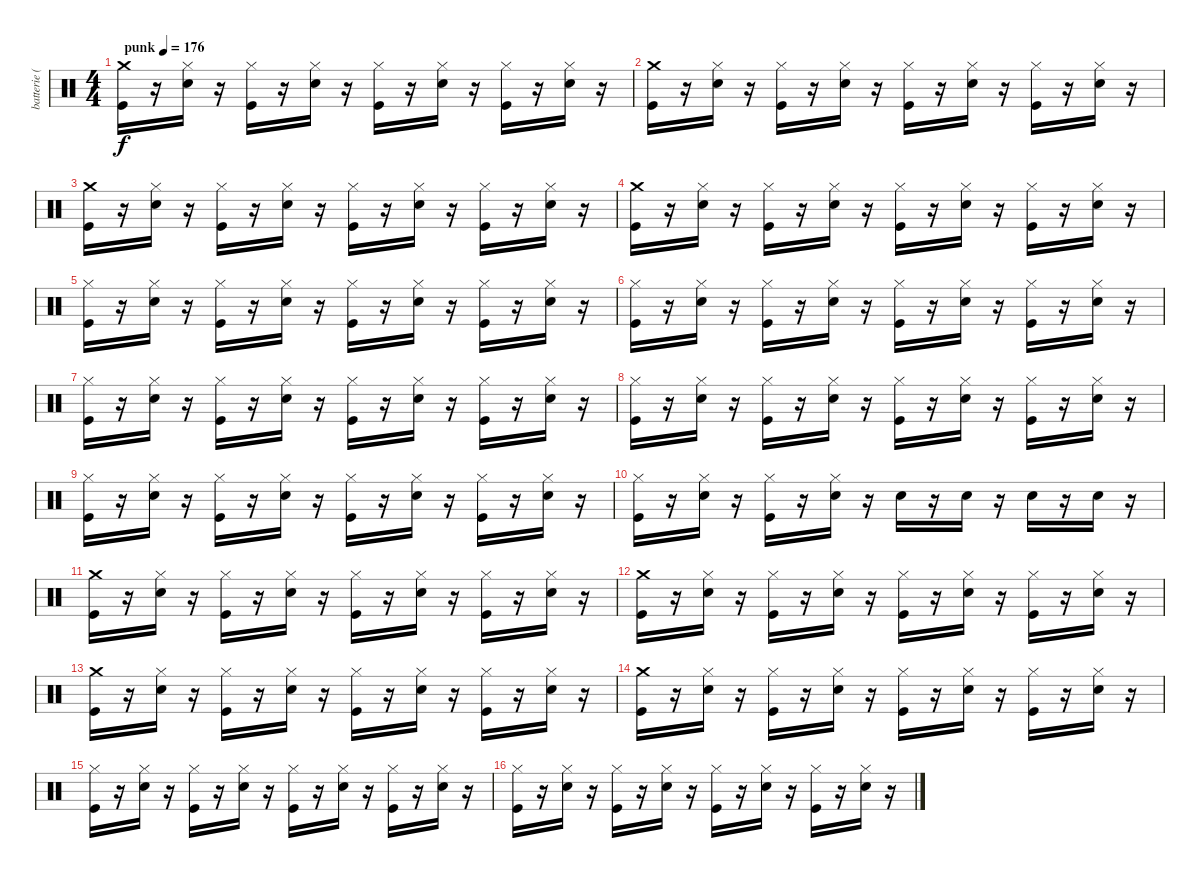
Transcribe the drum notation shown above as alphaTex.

\track ("batterie ( Jeff Nelson )" "batterie (") {instrument percussion}
\staff {score}
\articulation defaults
\ts (4 4)
\tempo (176 "punk")
\clef neutral
\ks c
("Crash medium (hit)" "Kick (hit)").16{dy f} r.16 ("Hi-Hat (closed)" "Snare (hit) 2").16 r.16 ("Hi-Hat (closed)" "Kick (hit)").16 r.16 ("Hi-Hat (closed)" "Snare (hit) 2").16 r.16 ("Hi-Hat (closed)" "Kick (hit)").16 r.16 ("Hi-Hat (closed)" "Snare (hit) 2").16 r.16 ("Hi-Hat (closed)" "Kick (hit)").16 r.16 ("Hi-Hat (closed)" "Snare (hit) 2").16 r.16 |
("Crash medium (hit)" "Kick (hit)").16 r.16 ("Hi-Hat (closed)" "Snare (hit) 2").16 r.16 ("Hi-Hat (closed)" "Kick (hit)").16 r.16 ("Hi-Hat (closed)" "Snare (hit) 2").16 r.16 ("Hi-Hat (closed)" "Kick (hit)").16 r.16 ("Hi-Hat (closed)" "Snare (hit) 2").16 r.16 ("Hi-Hat (closed)" "Kick (hit)").16 r.16 ("Hi-Hat (closed)" "Snare (hit) 2").16 r.16 |
("Crash medium (hit)" "Kick (hit)").16 r.16 ("Hi-Hat (closed)" "Snare (hit) 2").16 r.16 ("Hi-Hat (closed)" "Kick (hit)").16 r.16 ("Hi-Hat (closed)" "Snare (hit) 2").16 r.16 ("Hi-Hat (closed)" "Kick (hit)").16 r.16 ("Hi-Hat (closed)" "Snare (hit) 2").16 r.16 ("Hi-Hat (closed)" "Kick (hit)").16 r.16 ("Hi-Hat (closed)" "Snare (hit) 2").16 r.16 |
("Crash medium (hit)" "Kick (hit)").16 r.16 ("Hi-Hat (closed)" "Snare (hit) 2").16 r.16 ("Hi-Hat (closed)" "Kick (hit)").16 r.16 ("Hi-Hat (closed)" "Snare (hit) 2").16 r.16 ("Hi-Hat (closed)" "Kick (hit)").16 r.16 ("Hi-Hat (closed)" "Snare (hit) 2").16 r.16 ("Hi-Hat (closed)" "Kick (hit)").16 r.16 ("Hi-Hat (closed)" "Snare (hit) 2").16 r.16 |
("Hi-Hat (closed)" "Kick (hit)").16 r.16 ("Hi-Hat (closed)" "Snare (hit) 2").16 r.16 ("Hi-Hat (closed)" "Kick (hit)").16 r.16 ("Hi-Hat (closed)" "Snare (hit) 2").16 r.16 ("Hi-Hat (closed)" "Kick (hit)").16 r.16 ("Hi-Hat (closed)" "Snare (hit) 2").16 r.16 ("Hi-Hat (closed)" "Kick (hit)").16 r.16 ("Hi-Hat (closed)" "Snare (hit) 2").16 r.16 |
("Hi-Hat (closed)" "Kick (hit)").16 r.16 ("Hi-Hat (closed)" "Snare (hit) 2").16 r.16 ("Hi-Hat (closed)" "Kick (hit)").16 r.16 ("Hi-Hat (closed)" "Snare (hit) 2").16 r.16 ("Hi-Hat (closed)" "Kick (hit)").16 r.16 ("Hi-Hat (closed)" "Snare (hit) 2").16 r.16 ("Hi-Hat (closed)" "Kick (hit)").16 r.16 ("Hi-Hat (closed)" "Snare (hit) 2").16 r.16 |
("Hi-Hat (closed)" "Kick (hit)").16 r.16 ("Hi-Hat (closed)" "Snare (hit) 2").16 r.16 ("Hi-Hat (closed)" "Kick (hit)").16 r.16 ("Hi-Hat (closed)" "Snare (hit) 2").16 r.16 ("Hi-Hat (closed)" "Kick (hit)").16 r.16 ("Hi-Hat (closed)" "Snare (hit) 2").16 r.16 ("Hi-Hat (closed)" "Kick (hit)").16 r.16 ("Hi-Hat (closed)" "Snare (hit) 2").16 r.16 |
("Hi-Hat (closed)" "Kick (hit)").16 r.16 ("Hi-Hat (closed)" "Snare (hit) 2").16 r.16 ("Hi-Hat (closed)" "Kick (hit)").16 r.16 ("Hi-Hat (closed)" "Snare (hit) 2").16 r.16 ("Hi-Hat (closed)" "Kick (hit)").16 r.16 ("Hi-Hat (closed)" "Snare (hit) 2").16 r.16 ("Hi-Hat (closed)" "Kick (hit)").16 r.16 ("Hi-Hat (closed)" "Snare (hit) 2").16 r.16 |
("Hi-Hat (closed)" "Kick (hit)").16 r.16 ("Hi-Hat (closed)" "Snare (hit) 2").16 r.16 ("Hi-Hat (closed)" "Kick (hit)").16 r.16 ("Hi-Hat (closed)" "Snare (hit) 2").16 r.16 ("Hi-Hat (closed)" "Kick (hit)").16 r.16 ("Hi-Hat (closed)" "Snare (hit) 2").16 r.16 ("Hi-Hat (closed)" "Kick (hit)").16 r.16 ("Hi-Hat (closed)" "Snare (hit) 2").16 r.16 |
("Hi-Hat (closed)" "Kick (hit)").16 r.16 ("Hi-Hat (closed)" "Snare (hit) 2").16 r.16 ("Hi-Hat (closed)" "Kick (hit)").16 r.16 ("Hi-Hat (closed)" "Snare (hit) 2").16 r.16 "Snare (hit) 2".16 r.16 "Snare (hit) 2".16 r.16 "Snare (hit) 2".16 r.16 "Snare (hit) 2".16 r.16 |
("Crash medium (hit)" "Kick (hit)").16 r.16 ("Hi-Hat (closed)" "Snare (hit) 2").16 r.16 ("Hi-Hat (closed)" "Kick (hit)").16 r.16 ("Hi-Hat (closed)" "Snare (hit) 2").16 r.16 ("Hi-Hat (closed)" "Kick (hit)").16 r.16 ("Hi-Hat (closed)" "Snare (hit) 2").16 r.16 ("Hi-Hat (closed)" "Kick (hit)").16 r.16 ("Hi-Hat (closed)" "Snare (hit) 2").16 r.16 |
("Crash medium (hit)" "Kick (hit)").16 r.16 ("Hi-Hat (closed)" "Snare (hit) 2").16 r.16 ("Hi-Hat (closed)" "Kick (hit)").16 r.16 ("Hi-Hat (closed)" "Snare (hit) 2").16 r.16 ("Hi-Hat (closed)" "Kick (hit)").16 r.16 ("Hi-Hat (closed)" "Snare (hit) 2").16 r.16 ("Hi-Hat (closed)" "Kick (hit)").16 r.16 ("Hi-Hat (closed)" "Snare (hit) 2").16 r.16 |
("Crash medium (hit)" "Kick (hit)").16 r.16 ("Hi-Hat (closed)" "Snare (hit) 2").16 r.16 ("Hi-Hat (closed)" "Kick (hit)").16 r.16 ("Hi-Hat (closed)" "Snare (hit) 2").16 r.16 ("Hi-Hat (closed)" "Kick (hit)").16 r.16 ("Hi-Hat (closed)" "Snare (hit) 2").16 r.16 ("Hi-Hat (closed)" "Kick (hit)").16 r.16 ("Hi-Hat (closed)" "Snare (hit) 2").16 r.16 |
("Crash medium (hit)" "Kick (hit)").16 r.16 ("Hi-Hat (closed)" "Snare (hit) 2").16 r.16 ("Hi-Hat (closed)" "Kick (hit)").16 r.16 ("Hi-Hat (closed)" "Snare (hit) 2").16 r.16 ("Hi-Hat (closed)" "Kick (hit)").16 r.16 ("Hi-Hat (closed)" "Snare (hit) 2").16 r.16 ("Hi-Hat (closed)" "Kick (hit)").16 r.16 ("Hi-Hat (closed)" "Snare (hit) 2").16 r.16 |
("Hi-Hat (closed)" "Kick (hit)").16 r.16 ("Hi-Hat (closed)" "Snare (hit) 2").16 r.16 ("Hi-Hat (closed)" "Kick (hit)").16 r.16 ("Hi-Hat (closed)" "Snare (hit) 2").16 r.16 ("Hi-Hat (closed)" "Kick (hit)").16 r.16 ("Hi-Hat (closed)" "Snare (hit) 2").16 r.16 ("Hi-Hat (closed)" "Kick (hit)").16 r.16 ("Hi-Hat (closed)" "Snare (hit) 2").16 r.16 |
("Hi-Hat (closed)" "Kick (hit)").16 r.16 ("Hi-Hat (closed)" "Snare (hit) 2").16 r.16 ("Hi-Hat (closed)" "Kick (hit)").16 r.16 ("Hi-Hat (closed)" "Snare (hit) 2").16 r.16 ("Hi-Hat (closed)" "Kick (hit)").16 r.16 ("Hi-Hat (closed)" "Snare (hit) 2").16 r.16 ("Hi-Hat (closed)" "Kick (hit)").16 r.16 ("Hi-Hat (closed)" "Snare (hit) 2").16 r.16
